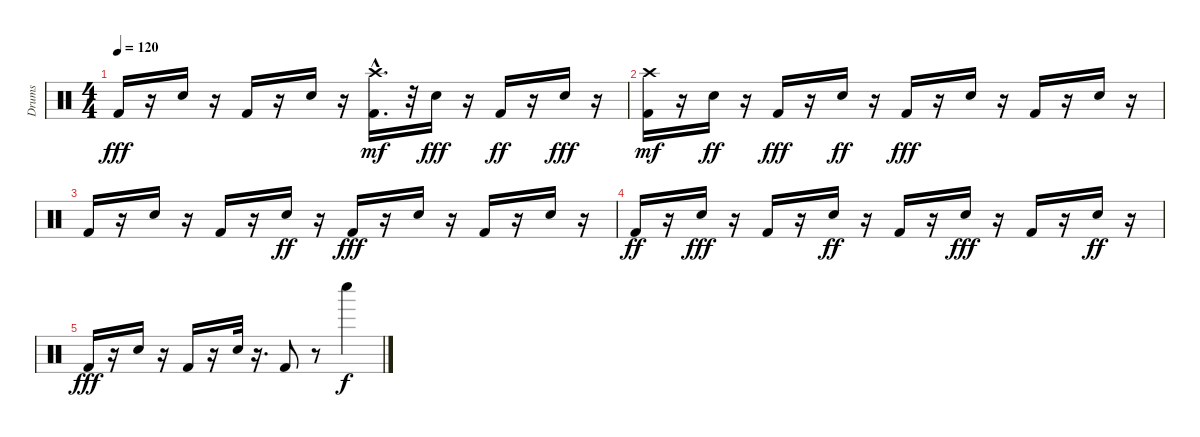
\track ("Drums" "Drums") {instrument percussion}
\staff {score}
\articulation defaults
\ts (4 4)
\tempo 120
\clef neutral
\ks c "Kick (hit) 2".16{dy fff}
r.16 "Snare (hit) 2".16 r.16 "Kick (hit) 2".16 r.16 "Snare (hit) 2".16 r.16 ("Kick (hit) 2" "Crash high (hit)"{hac}).16{d dy mf} r.32 "Snare (hit) 2".16{dy fff} r.16 "Kick (hit) 2".16{dy ff} r.16 "Snare (hit) 2".16{dy fff} r.16 |
("Kick (hit) 2" "Crash high (hit)").16{dy mf} r.16 "Snare (hit) 2".16{dy ff} r.16 "Kick (hit) 2".16{dy fff} r.16 "Snare (hit) 2".16{dy ff} r.16 "Kick (hit) 2".16{dy fff} r.16 "Snare (hit) 2".16 r.16 "Kick (hit) 2".16 r.16 "Snare (hit) 2".16 r.16 |
"Kick (hit) 2".16 r.16 "Snare (hit) 2".16 r.16 "Kick (hit) 2".16 r.16 "Snare (hit) 2".16{dy ff} r.16 "Kick (hit) 2".16{dy fff} r.16 "Snare (hit) 2".16 r.16 "Kick (hit) 2".16 r.16 "Snare (hit) 2".16 r.16 |
"Kick (hit) 2".16{dy ff} r.16 "Snare (hit) 2".16{dy fff} r.16 "Kick (hit) 2".16 r.16 "Snare (hit) 2".16{dy ff} r.16 "Kick (hit) 2".16 r.16 "Snare (hit) 2".16{dy fff} r.16 "Kick (hit) 2".16 r.16 "Snare (hit) 2".16{dy ff} r.16 |
"Kick (hit) 2".16{dy fff} r.16 "Snare (hit) 2".16 r.16 "Kick (hit) 2".16 r.16 "Snare (hit) 2".32 r.16{d} "Kick (hit) 2".8 r.8 "Whistle low (hit)".4{dy f}
